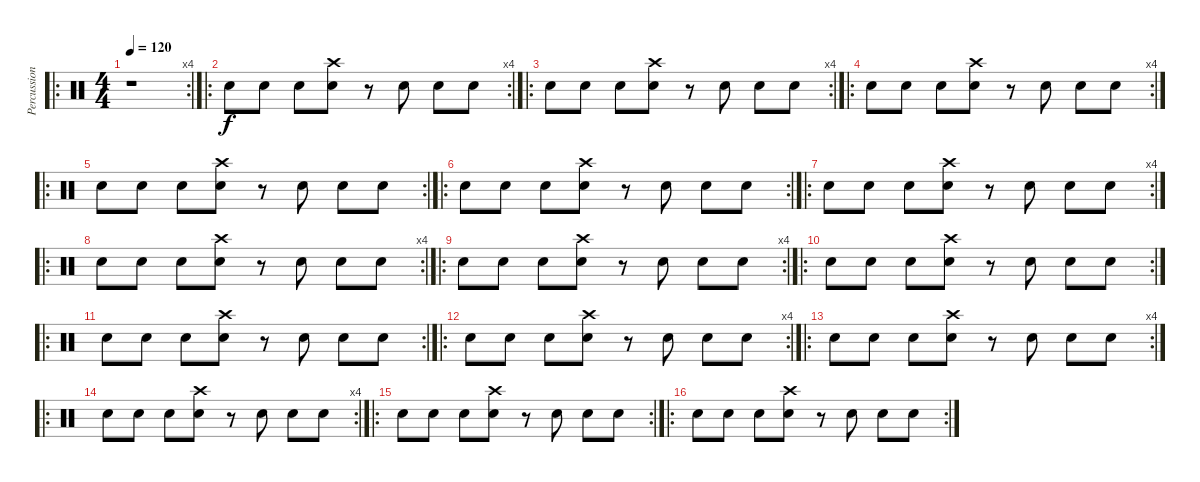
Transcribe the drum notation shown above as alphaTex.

\track ("Percussions" "Percussion") {instrument percussion}
\staff {score}
\articulation defaults
\ro
\rc 4
\ts (4 4)
\tempo 120
\clef neutral
\ks c
r.1{dy f} |
\ro
\rc 4 "Snare (hit) 2".8 "Snare (hit) 2".8 "Snare (hit) 2".8
("Snare (hit) 2" "Crash high (hit)").8 r.8 "Snare (hit) 2".8 "Snare (hit) 2".8 "Snare (hit) 2".8 |
\ro
\rc 4 "Snare (hit) 2".8 "Snare (hit) 2".8 "Snare (hit) 2".8
("Snare (hit) 2" "Crash high (hit)").8 r.8 "Snare (hit) 2".8 "Snare (hit) 2".8 "Snare (hit) 2".8 |
\ro
\rc 4 "Snare (hit) 2".8 "Snare (hit) 2".8 "Snare (hit) 2".8
("Snare (hit) 2" "Crash high (hit)").8 r.8 "Snare (hit) 2".8 "Snare (hit) 2".8 "Snare (hit) 2".8 |
\ro
\rc 2 "Snare (hit) 2".8 "Snare (hit) 2".8 "Snare (hit) 2".8
("Snare (hit) 2" "Crash high (hit)").8 r.8 "Snare (hit) 2".8 "Snare (hit) 2".8 "Snare (hit) 2".8 |
\ro
\rc 2 "Snare (hit) 2".8 "Snare (hit) 2".8 "Snare (hit) 2".8
("Snare (hit) 2" "Crash high (hit)").8 r.8 "Snare (hit) 2".8 "Snare (hit) 2".8 "Snare (hit) 2".8 |
\ro
\rc 4 "Snare (hit) 2".8 "Snare (hit) 2".8 "Snare (hit) 2".8
("Snare (hit) 2" "Crash high (hit)").8 r.8 "Snare (hit) 2".8 "Snare (hit) 2".8 "Snare (hit) 2".8 |
\ro
\rc 4 "Snare (hit) 2".8 "Snare (hit) 2".8 "Snare (hit) 2".8
("Snare (hit) 2" "Crash high (hit)").8 r.8 "Snare (hit) 2".8 "Snare (hit) 2".8 "Snare (hit) 2".8 |
\ro
\rc 4 "Snare (hit) 2".8 "Snare (hit) 2".8 "Snare (hit) 2".8
("Snare (hit) 2" "Crash high (hit)").8 r.8 "Snare (hit) 2".8 "Snare (hit) 2".8 "Snare (hit) 2".8 |
\ro
\rc 2 "Snare (hit) 2".8 "Snare (hit) 2".8 "Snare (hit) 2".8
("Snare (hit) 2" "Crash high (hit)").8 r.8 "Snare (hit) 2".8 "Snare (hit) 2".8 "Snare (hit) 2".8 |
\ro
\rc 2 "Snare (hit) 2".8 "Snare (hit) 2".8 "Snare (hit) 2".8
("Snare (hit) 2" "Crash high (hit)").8 r.8 "Snare (hit) 2".8 "Snare (hit) 2".8 "Snare (hit) 2".8 |
\ro
\rc 4 "Snare (hit) 2".8 "Snare (hit) 2".8 "Snare (hit) 2".8
("Snare (hit) 2" "Crash high (hit)").8 r.8 "Snare (hit) 2".8 "Snare (hit) 2".8 "Snare (hit) 2".8 |
\ro
\rc 4 "Snare (hit) 2".8 "Snare (hit) 2".8 "Snare (hit) 2".8
("Snare (hit) 2" "Crash high (hit)").8 r.8 "Snare (hit) 2".8 "Snare (hit) 2".8 "Snare (hit) 2".8 |
\ro
\rc 4 "Snare (hit) 2".8 "Snare (hit) 2".8 "Snare (hit) 2".8
("Snare (hit) 2" "Crash high (hit)").8 r.8 "Snare (hit) 2".8 "Snare (hit) 2".8 "Snare (hit) 2".8 |
\ro
\rc 2 "Snare (hit) 2".8 "Snare (hit) 2".8 "Snare (hit) 2".8
("Snare (hit) 2" "Crash high (hit)").8 r.8 "Snare (hit) 2".8 "Snare (hit) 2".8 "Snare (hit) 2".8 |
\ro
\rc 2 "Snare (hit) 2".8 "Snare (hit) 2".8 "Snare (hit) 2".8
("Snare (hit) 2" "Crash high (hit)").8 r.8 "Snare (hit) 2".8 "Snare (hit) 2".8 "Snare (hit) 2".8
